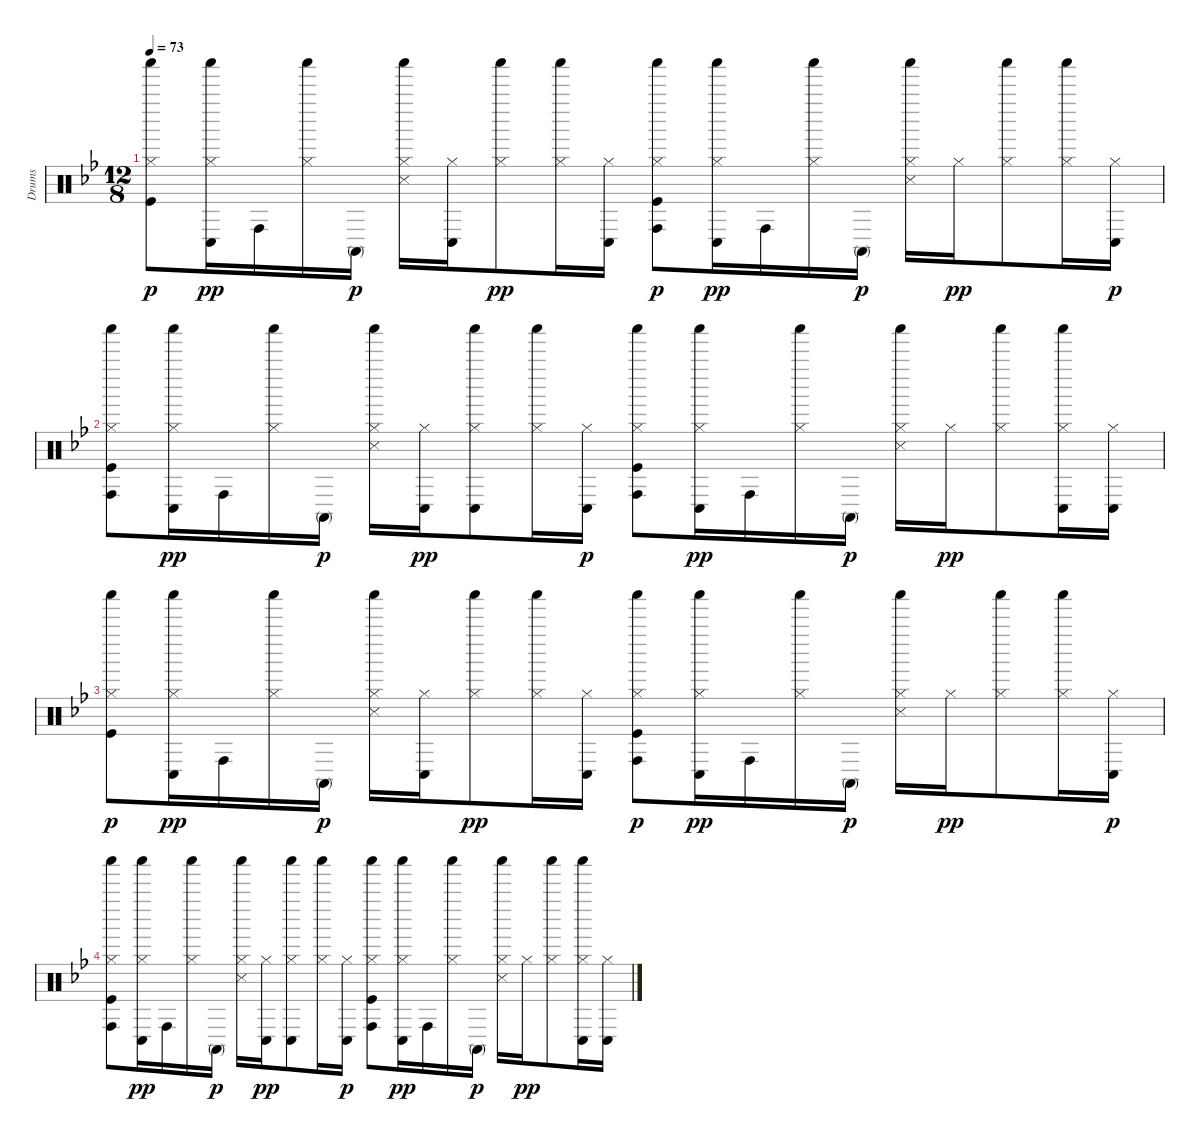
\track ("Drums" "Drums") {instrument percussion}
\staff {score}
\articulation defaults
\ts (12 8)
\tempo 73
\clef neutral
\ks bb
("Kick (hit)" "Hi-Hat (closed)" "Shaker (hit)").8{dy p} ("Hi-Hat (closed)" "Conga low (hit)" "Shaker (hit)").16{dy pp} "Conga high (hit)".16 ("Hi-Hat (closed)" "Shaker (hit)").16 "Conga high (mute)".16{dy p} ("Snare (side stick) 3" "Hi-Hat (closed)" "Shaker (hit)").16 ("Hi-Hat (closed)" "Conga low (hit)").16 ("Hi-Hat (closed)" "Shaker (hit)").8{dy pp} ("Hi-Hat (closed)" "Shaker (hit)").16 ("Hi-Hat (closed)" "Conga low (hit)").16 ("Kick (hit)" "Hi-Hat (closed)" "Conga high (hit)" "Shaker (hit)").8{dy p} ("Hi-Hat (closed)" "Conga low (hit)" "Shaker (hit)").16{dy pp} "Conga high (hit)".16 ("Hi-Hat (closed)" "Shaker (hit)").16 "Conga high (mute)".16{dy p} ("Snare (side stick) 3" "Hi-Hat (closed)" "Shaker (hit)").16 "Hi-Hat (closed)".16{dy pp} ("Hi-Hat (closed)" "Shaker (hit)").8 ("Hi-Hat (closed)" "Shaker (hit)").16 ("Hi-Hat (closed)" "Conga low (hit)").16{dy p} |
("Kick (hit)" "Hi-Hat (closed)" "Conga high (hit)" "Shaker (hit)").8 ("Hi-Hat (closed)" "Conga low (hit)" "Shaker (hit)").16{dy pp} "Conga high (hit)".16 ("Hi-Hat (closed)" "Shaker (hit)").16 "Conga high (mute)".16{dy p} ("Snare (side stick) 3" "Hi-Hat (closed)" "Shaker (hit)").16 ("Hi-Hat (closed)" "Conga low (hit)").16{dy pp} ("Hi-Hat (closed)" "Conga low (hit)" "Shaker (hit)").8 ("Hi-Hat (closed)" "Shaker (hit)").16 ("Hi-Hat (closed)" "Conga low (hit)").16{dy p} ("Kick (hit)" "Hi-Hat (closed)" "Conga high (hit)" "Shaker (hit)").8 ("Hi-Hat (closed)" "Conga low (hit)" "Shaker (hit)").16{dy pp} "Conga high (hit)".16 ("Hi-Hat (closed)" "Shaker (hit)").16 "Conga high (mute)".16{dy p} ("Snare (side stick) 3" "Hi-Hat (closed)" "Shaker (hit)").16 "Hi-Hat (closed)".16{dy pp} ("Hi-Hat (closed)" "Shaker (hit)").8 ("Hi-Hat (closed)" "Conga low (hit)" "Shaker (hit)").16 ("Hi-Hat (closed)" "Conga low (hit)").16 |
("Kick (hit)" "Hi-Hat (closed)" "Shaker (hit)").8{dy p} ("Hi-Hat (closed)" "Conga low (hit)" "Shaker (hit)").16{dy pp} "Conga high (hit)".16 ("Hi-Hat (closed)" "Shaker (hit)").16 "Conga high (mute)".16{dy p} ("Snare (side stick) 3" "Hi-Hat (closed)" "Shaker (hit)").16 ("Hi-Hat (closed)" "Conga low (hit)").16 ("Hi-Hat (closed)" "Shaker (hit)").8{dy pp} ("Hi-Hat (closed)" "Shaker (hit)").16 ("Hi-Hat (closed)" "Conga low (hit)").16 ("Kick (hit)" "Hi-Hat (closed)" "Conga high (hit)" "Shaker (hit)").8{dy p} ("Hi-Hat (closed)" "Conga low (hit)" "Shaker (hit)").16{dy pp} "Conga high (hit)".16 ("Hi-Hat (closed)" "Shaker (hit)").16 "Conga high (mute)".16{dy p} ("Snare (side stick) 3" "Hi-Hat (closed)" "Shaker (hit)").16 "Hi-Hat (closed)".16{dy pp} ("Hi-Hat (closed)" "Shaker (hit)").8 ("Hi-Hat (closed)" "Shaker (hit)").16 ("Hi-Hat (closed)" "Conga low (hit)").16{dy p} |
("Kick (hit)" "Hi-Hat (closed)" "Conga high (hit)" "Shaker (hit)").8 ("Hi-Hat (closed)" "Conga low (hit)" "Shaker (hit)").16{dy pp} "Conga high (hit)".16 ("Hi-Hat (closed)" "Shaker (hit)").16 "Conga high (mute)".16{dy p} ("Snare (side stick) 3" "Hi-Hat (closed)" "Shaker (hit)").16 ("Hi-Hat (closed)" "Conga low (hit)").16{dy pp} ("Hi-Hat (closed)" "Conga low (hit)" "Shaker (hit)").8 ("Hi-Hat (closed)" "Shaker (hit)").16 ("Hi-Hat (closed)" "Conga low (hit)").16{dy p} ("Kick (hit)" "Hi-Hat (closed)" "Conga high (hit)" "Shaker (hit)").8 ("Hi-Hat (closed)" "Conga low (hit)" "Shaker (hit)").16{dy pp} "Conga high (hit)".16 ("Hi-Hat (closed)" "Shaker (hit)").16 "Conga high (mute)".16{dy p} ("Snare (side stick) 3" "Hi-Hat (closed)" "Shaker (hit)").16 "Hi-Hat (closed)".16{dy pp} ("Hi-Hat (closed)" "Shaker (hit)").8 ("Hi-Hat (closed)" "Conga low (hit)" "Shaker (hit)").16 ("Hi-Hat (closed)" "Conga low (hit)").16
